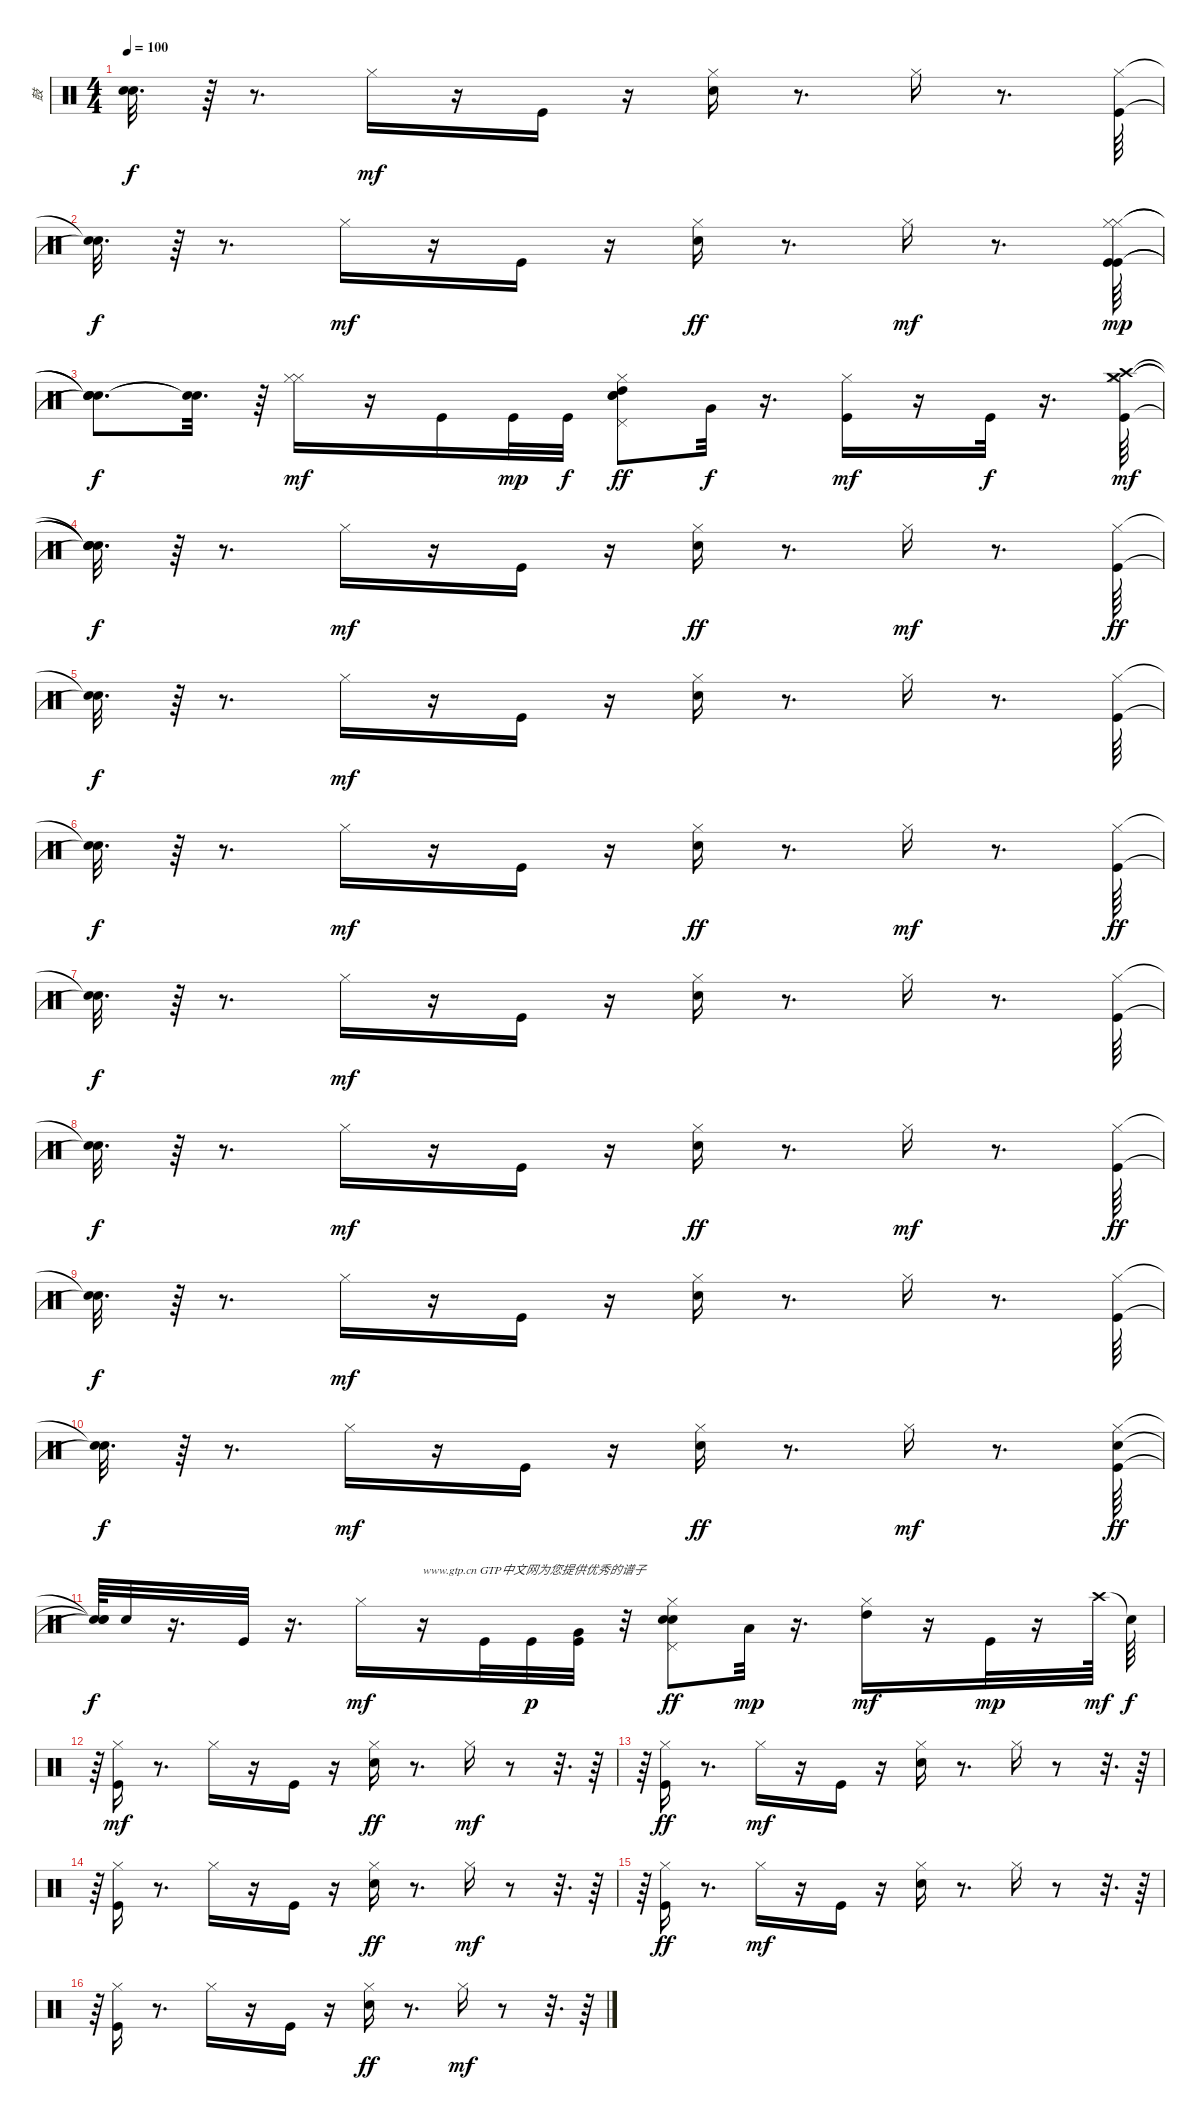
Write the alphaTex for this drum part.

\track ("鼓" "鼓") {instrument percussion}
\staff {score}
\articulation defaults
\ts (4 4)
\tempo 100
\clef neutral
\ks c
("Snare (hit)"{t} "Snare (hit)"{t}).32{d dy f} r.64 r.8{d} "Hi-Hat (closed)".16{dy mf} r.16 "Kick (hit)".16 r.16 ("Electric Snare (hit)" "Hi-Hat (closed)").16 r.8{d} "Hi-Hat (closed)".16 r.8{d} ("Kick (hit)" "Hi-Hat (closed)").64 |
("Snare (hit)"{t} "Snare (hit)"{t}).32{d dy f} r.64 r.8{d} "Hi-Hat (closed)".16{dy mf} r.16 "Kick (hit)".16 r.16 ("Hi-Hat (closed)" "Electric Snare (hit)").16{dy ff} r.8{d} "Hi-Hat (closed)".16{dy mf} r.8{d} ("Kick (hit)" "Kick (hit)" "Hi-Hat (closed)" "Hi-Hat (closed)").64{dy mp} |
("Snare (hit)"{t} "Snare (hit)"{t} "Snare (hit)"{t} "Snare (hit)"{t}).8{d dy f} ("Snare (hit)"{t} "Snare (hit)"{t}).32{d} r.64 ("Hi-Hat (closed)" "Hi-Hat (closed)").16{dy mf} r.16 "Kick (hit)".16 "Kick (hit)".32{dy mp} "Kick (hit)".32{dy f} ("High Tom (hit)" "Pedal Hi-Hat (hit)" "Electric Snare (hit)" "Hi-Hat (closed)" "Electric Snare (hit)").8{dy ff} "Very Low Tom (hit)".32{dy f} r.16{d} ("Kick (hit)" "Hi-Hat (closed)").16{dy mf} r.16 "Kick (hit)".32{dy f} r.16{d} ("Crash medium (hit)" "Crash high (hit)" "Kick (hit)" "Hi-Hat (closed)").64{dy mf} |
("Snare (hit)"{t} "Snare (hit)"{t} "Snare (hit)"{t} "Snare (hit)"{t}).32{d dy f} r.64 r.8{d} "Hi-Hat (closed)".16{dy mf} r.16 "Kick (hit)".16 r.16 ("Hi-Hat (closed)" "Electric Snare (hit)").16{dy ff} r.8{d} "Hi-Hat (closed)".16{dy mf} r.8{d} ("Kick (hit)" "Hi-Hat (closed)").64{dy ff} |
("Snare (hit)"{t} "Snare (hit)"{t}).32{d dy f} r.64 r.8{d} "Hi-Hat (closed)".16{dy mf} r.16 "Kick (hit)".16 r.16 ("Electric Snare (hit)" "Hi-Hat (closed)").16 r.8{d} "Hi-Hat (closed)".16 r.8{d} ("Kick (hit)" "Hi-Hat (closed)").64 |
("Snare (hit)"{t} "Snare (hit)"{t}).32{d dy f} r.64 r.8{d} "Hi-Hat (closed)".16{dy mf} r.16 "Kick (hit)".16 r.16 ("Hi-Hat (closed)" "Electric Snare (hit)").16{dy ff} r.8{d} "Hi-Hat (closed)".16{dy mf} r.8{d} ("Kick (hit)" "Hi-Hat (closed)").64{dy ff} |
("Snare (hit)"{t} "Snare (hit)"{t}).32{d dy f} r.64 r.8{d} "Hi-Hat (closed)".16{dy mf} r.16 "Kick (hit)".16 r.16 ("Electric Snare (hit)" "Hi-Hat (closed)").16 r.8{d} "Hi-Hat (closed)".16 r.8{d} ("Kick (hit)" "Hi-Hat (closed)").64 |
("Snare (hit)"{t} "Snare (hit)"{t}).32{d dy f} r.64 r.8{d} "Hi-Hat (closed)".16{dy mf} r.16 "Kick (hit)".16 r.16 ("Hi-Hat (closed)" "Electric Snare (hit)").16{dy ff} r.8{d} "Hi-Hat (closed)".16{dy mf} r.8{d} ("Kick (hit)" "Hi-Hat (closed)").64{dy ff} |
("Snare (hit)"{t} "Snare (hit)"{t}).32{d dy f} r.64 r.8{d} "Hi-Hat (closed)".16{dy mf} r.16 "Kick (hit)".16 r.16 ("Electric Snare (hit)" "Hi-Hat (closed)").16 r.8{d} "Hi-Hat (closed)".16 r.8{d} ("Kick (hit)" "Hi-Hat (closed)").64 |
("Snare (hit)"{t} "Snare (hit)"{t}).32{d dy f} r.64 r.8{d} "Hi-Hat (closed)".16{dy mf} r.16 "Kick (hit)".16 r.16 ("Hi-Hat (closed)" "Electric Snare (hit)").16{dy ff} r.8{d} "Hi-Hat (closed)".16{dy mf} r.8{d} ("Electric Snare (hit)" "Kick (hit)" "Hi-Hat (closed)").64{dy ff} |
("Snare (hit)"{t} "Snare (hit)"{t} "Snare (hit)"{t}).64{dy f} "Electric Snare (hit)".32 r.16{d} "Kick (hit)".32 r.16{d} "Hi-Hat (closed)".16{dy mf} r.16{txt "www.gtp.cn GTP中文网为您提供优秀的谱子"} "Kick (hit)".32 "Kick (hit)".32{dy p} ("Kick (hit)" "Very Low Tom (hit)").32 r.32 ("Pedal Hi-Hat (hit)" "Electric Snare (hit)" "Hi-Hat (closed)" "Electric Snare (hit)").8{dy ff} "Low Tom (hit)".32{dy mp} r.16{d} ("Hi-Hat (closed)" "High Tom (hit)").16{dy mf} r.16 "Kick (hit)".32{dy mp} r.16 "Crash high (hit)".64{dy mf} "Snare (hit)"{t}.64{dy f} |
r.64 ("Kick (hit)" "Hi-Hat (closed)").16{dy mf} r.8{d} "Hi-Hat (closed)".16 r.16 "Kick (hit)".16 r.16 ("Hi-Hat (closed)" "Electric Snare (hit)").16{dy ff} r.8{d} "Hi-Hat (closed)".16{dy mf} r.8 r.32{d} r.64 |
r.64 ("Kick (hit)" "Hi-Hat (closed)").16{dy ff} r.8{d} "Hi-Hat (closed)".16{dy mf} r.16 "Kick (hit)".16 r.16 ("Electric Snare (hit)" "Hi-Hat (closed)").16 r.8{d} "Hi-Hat (closed)".16 r.8 r.32{d} r.64 |
r.64 ("Kick (hit)" "Hi-Hat (closed)").16 r.8{d} "Hi-Hat (closed)".16 r.16 "Kick (hit)".16 r.16 ("Hi-Hat (closed)" "Electric Snare (hit)").16{dy ff} r.8{d} "Hi-Hat (closed)".16{dy mf} r.8 r.32{d} r.64 |
r.64 ("Kick (hit)" "Hi-Hat (closed)").16{dy ff} r.8{d} "Hi-Hat (closed)".16{dy mf} r.16 "Kick (hit)".16 r.16 ("Electric Snare (hit)" "Hi-Hat (closed)").16 r.8{d} "Hi-Hat (closed)".16 r.8 r.32{d} r.64 |
r.64 ("Kick (hit)" "Hi-Hat (closed)").16 r.8{d} "Hi-Hat (closed)".16 r.16 "Kick (hit)".16 r.16 ("Hi-Hat (closed)" "Electric Snare (hit)").16{dy ff} r.8{d} "Hi-Hat (closed)".16{dy mf} r.8 r.32{d} r.64
